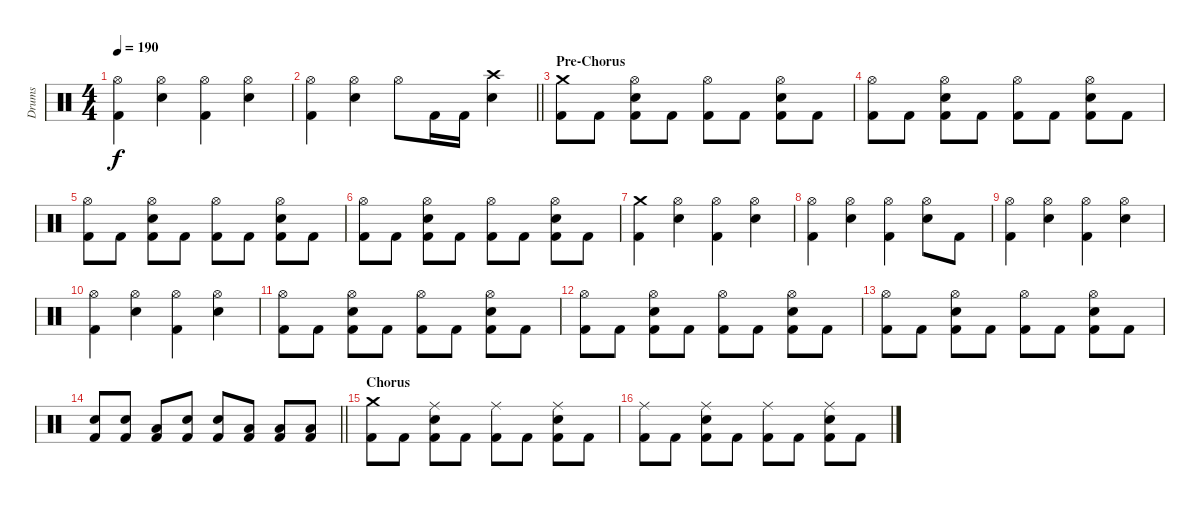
\track ("Drums" "Drums") {instrument percussion}
\staff {score}
\articulation defaults
\ts (4 4)
\tempo 190
\clef neutral
\ks c
("Hi-Hat (open)" "Kick (hit) 2").4{dy f} ("Hi-Hat (open)" "Snare (hit) 2").4 ("Hi-Hat (open)" "Kick (hit) 2").4 ("Hi-Hat (open)" "Snare (hit) 2").4 |
\barLineRight lightlight
("Hi-Hat (open)" "Kick (hit) 2").4 ("Hi-Hat (open)" "Snare (hit) 2").4 "Hi-Hat (open)".8 "Kick (hit) 2".16 "Kick (hit) 2".16 ("Crash high (hit)" "Snare (hit) 2").4 |
\section ("" "Pre-Chorus")
("Crash medium (hit)" "Kick (hit) 2").8 "Kick (hit) 2".8 ("Hi-Hat (open)" "Snare (hit) 2" "Kick (hit) 2").8 "Kick (hit) 2".8 ("Hi-Hat (open)" "Kick (hit) 2").8 "Kick (hit) 2".8 ("Hi-Hat (open)" "Snare (hit) 2" "Kick (hit) 2").8 "Kick (hit) 2".8 |
("Hi-Hat (open)" "Kick (hit) 2").8 "Kick (hit) 2".8 ("Hi-Hat (open)" "Snare (hit) 2" "Kick (hit) 2").8 "Kick (hit) 2".8 ("Hi-Hat (open)" "Kick (hit) 2").8 "Kick (hit) 2".8 ("Hi-Hat (open)" "Snare (hit) 2" "Kick (hit) 2").8 "Kick (hit) 2".8 |
("Hi-Hat (open)" "Kick (hit) 2").8 "Kick (hit) 2".8 ("Hi-Hat (open)" "Snare (hit) 2" "Kick (hit) 2").8 "Kick (hit) 2".8 ("Hi-Hat (open)" "Kick (hit) 2").8 "Kick (hit) 2".8 ("Hi-Hat (open)" "Snare (hit) 2" "Kick (hit) 2").8 "Kick (hit) 2".8 |
("Hi-Hat (open)" "Kick (hit) 2").8 "Kick (hit) 2".8 ("Hi-Hat (open)" "Snare (hit) 2" "Kick (hit) 2").8 "Kick (hit) 2".8 ("Hi-Hat (open)" "Kick (hit) 2").8 "Kick (hit) 2".8 ("Hi-Hat (open)" "Snare (hit) 2" "Kick (hit) 2").8 "Kick (hit) 2".8 |
("Crash medium (hit)" "Kick (hit) 2").4 ("Hi-Hat (open)" "Snare (hit) 2").4 ("Hi-Hat (open)" "Kick (hit) 2").4 ("Hi-Hat (open)" "Snare (hit) 2").4 |
("Hi-Hat (open)" "Kick (hit) 2").4 ("Hi-Hat (open)" "Snare (hit) 2").4 ("Hi-Hat (open)" "Kick (hit) 2").4 ("Hi-Hat (open)" "Snare (hit) 2").8 "Kick (hit) 2".8 |
("Hi-Hat (open)" "Kick (hit) 2").4 ("Hi-Hat (open)" "Snare (hit) 2").4 ("Hi-Hat (open)" "Kick (hit) 2").4 ("Hi-Hat (open)" "Snare (hit) 2").4 |
("Hi-Hat (open)" "Kick (hit) 2").4 ("Hi-Hat (open)" "Snare (hit) 2").4 ("Hi-Hat (open)" "Kick (hit) 2").4 ("Hi-Hat (open)" "Snare (hit) 2").4 |
("Hi-Hat (open)" "Kick (hit) 2").8 "Kick (hit) 2".8 ("Hi-Hat (open)" "Snare (hit) 2" "Kick (hit) 2").8 "Kick (hit) 2".8 ("Hi-Hat (open)" "Kick (hit) 2").8 "Kick (hit) 2".8 ("Hi-Hat (open)" "Snare (hit) 2" "Kick (hit) 2").8 "Kick (hit) 2".8 |
("Hi-Hat (open)" "Kick (hit) 2").8 "Kick (hit) 2".8 ("Hi-Hat (open)" "Snare (hit) 2" "Kick (hit) 2").8 "Kick (hit) 2".8 ("Hi-Hat (open)" "Kick (hit) 2").8 "Kick (hit) 2".8 ("Hi-Hat (open)" "Snare (hit) 2" "Kick (hit) 2").8 "Kick (hit) 2".8 |
("Hi-Hat (open)" "Kick (hit) 2").8 "Kick (hit) 2".8 ("Hi-Hat (open)" "Snare (hit) 2" "Kick (hit) 2").8 "Kick (hit) 2".8 ("Hi-Hat (open)" "Kick (hit) 2").8 "Kick (hit) 2".8 ("Hi-Hat (open)" "Snare (hit) 2" "Kick (hit) 2").8 "Kick (hit) 2".8 |
\barLineRight lightlight
("Snare (hit) 2" "Kick (hit) 2").8 ("Snare (hit) 2" "Kick (hit) 2").8 ("Low Tom (hit)" "Kick (hit) 2").8 ("Snare (hit) 2" "Kick (hit) 2").8 ("Snare (hit) 2" "Kick (hit) 2").8 ("Low Tom (hit)" "Kick (hit) 2").8 ("Low Tom (hit)" "Kick (hit) 2").8 ("Low Tom (hit)" "Kick (hit) 2").8 |
\section ("" "Chorus")
("Crash medium (hit)" "Kick (hit) 2").8 "Kick (hit) 2".8 ("Ride (middle)" "Snare (hit) 2" "Kick (hit) 2").8 "Kick (hit) 2".8 ("Ride (middle)" "Kick (hit) 2").8 "Kick (hit) 2".8 ("Ride (middle)" "Snare (hit) 2" "Kick (hit) 2").8 "Kick (hit) 2".8 |
("Ride (middle)" "Kick (hit) 2").8 "Kick (hit) 2".8 ("Ride (middle)" "Snare (hit) 2" "Kick (hit) 2").8 "Kick (hit) 2".8 ("Ride (middle)" "Kick (hit) 2").8 "Kick (hit) 2".8 ("Ride (middle)" "Snare (hit) 2" "Kick (hit) 2").8 "Kick (hit) 2".8
